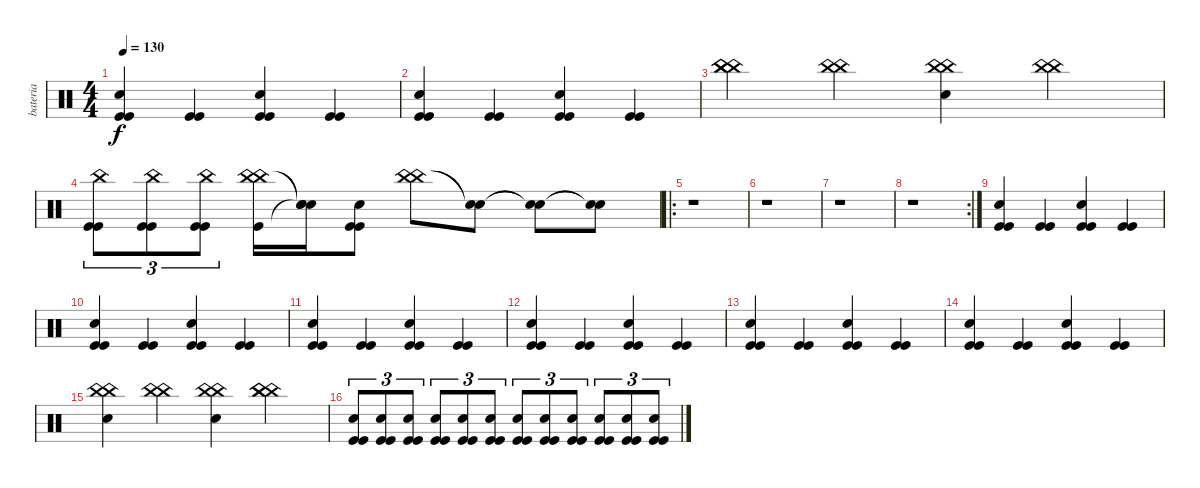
\track ("bateria" "bateria") {instrument percussion}
\staff {score}
\articulation defaults
\ts (4 4)
\tempo 130
\clef neutral
\ks c
("Kick (hit)" "Snare (hit) 2" "Kick (hit)").4{dy f} ("Kick (hit)" "Kick (hit)").4 ("Kick (hit)" "Snare (hit) 2" "Kick (hit)").4 ("Kick (hit)" "Kick (hit)").4 |
("Kick (hit)" "Snare (hit) 2" "Kick (hit)").4 ("Kick (hit)" "Kick (hit)").4 ("Kick (hit)" "Snare (hit) 2" "Kick (hit)").4 ("Kick (hit)" "Kick (hit)").4 |
("China (hit)" "China (hit)" "China (hit)").4 ("China (hit)" "China (hit)").4 ("China (hit)" "Snare (hit) 2" "China (hit)").4 ("China (hit)" "China (hit)").4 |
("China (hit)" "Kick (hit)" "Kick (hit)").8{tu (3 2)} ("China (hit)" "Kick (hit)" "Kick (hit)").8{tu (3 2)} ("China (hit)" "Kick (hit)" "Kick (hit)").8{tu (3 2)} ("China (hit)" "Kick (hit)" "China (hit)").16 ("Snare (hit)"{t} "Snare (hit)"{t} "Snare (hit)"{t}).16 ("Kick (hit)" "Kick (hit)" "Snare (hit) 2").8 ("China (hit)" "China (hit)").8 ("Snare (hit)"{t} "Snare (hit)"{t}).8 ("Snare (hit)"{t} "Snare (hit)"{t}).8 ("Snare (hit)"{t} "Snare (hit)"{t}).8 |
\ro
r.1 |
r.1 |
r.1 |
\rc 2
r.1 |
("Kick (hit)" "Snare (hit) 2" "Kick (hit)").4 ("Kick (hit)" "Kick (hit)").4 ("Kick (hit)" "Snare (hit) 2" "Kick (hit)").4 ("Kick (hit)" "Kick (hit)").4 |
("Kick (hit)" "Snare (hit) 2" "Kick (hit)").4 ("Kick (hit)" "Kick (hit)").4 ("Kick (hit)" "Snare (hit) 2" "Kick (hit)").4 ("Kick (hit)" "Kick (hit)").4 |
("Kick (hit)" "Snare (hit) 2" "Kick (hit)").4 ("Kick (hit)" "Kick (hit)").4 ("Kick (hit)" "Snare (hit) 2" "Kick (hit)").4 ("Kick (hit)" "Kick (hit)").4 |
("Kick (hit)" "Snare (hit) 2" "Kick (hit)").4 ("Kick (hit)" "Kick (hit)").4 ("Kick (hit)" "Snare (hit) 2" "Kick (hit)").4 ("Kick (hit)" "Kick (hit)").4 |
("Kick (hit)" "Snare (hit) 2" "Kick (hit)").4 ("Kick (hit)" "Kick (hit)").4 ("Kick (hit)" "Snare (hit) 2" "Kick (hit)").4 ("Kick (hit)" "Kick (hit)").4 |
("Kick (hit)" "Snare (hit) 2" "Kick (hit)").4 ("Kick (hit)" "Kick (hit)").4 ("Kick (hit)" "Snare (hit) 2" "Kick (hit)").4 ("Kick (hit)" "Kick (hit)").4 |
("China (hit)" "Snare (hit) 2" "China (hit)").4 ("China (hit)" "China (hit)").4 ("China (hit)" "Snare (hit) 2" "China (hit)").4 ("China (hit)" "China (hit)" "China (hit)").4 |
("Kick (hit)" "Snare (hit) 2" "Kick (hit)").8{tu (3 2)} ("Kick (hit)" "Snare (hit) 2" "Kick (hit)").8{tu (3 2)} ("Kick (hit)" "Snare (hit) 2" "Kick (hit)").8{tu (3 2)} ("Kick (hit)" "Snare (hit) 2" "Kick (hit)").8{tu (3 2)} ("Kick (hit)" "Snare (hit) 2" "Kick (hit)").8{tu (3 2)} ("Kick (hit)" "Snare (hit) 2" "Kick (hit)").8{tu (3 2)} ("Kick (hit)" "Snare (hit) 2" "Kick (hit)").8{tu (3 2)} ("Kick (hit)" "Snare (hit) 2" "Kick (hit)").8{tu (3 2)} ("Kick (hit)" "Snare (hit) 2" "Kick (hit)").8{tu (3 2)} ("Kick (hit)" "Snare (hit) 2" "Kick (hit)").8{tu (3 2)} ("Kick (hit)" "Snare (hit) 2" "Kick (hit)").8{tu (3 2)} ("Kick (hit)" "Snare (hit) 2" "Kick (hit)").8{tu (3 2)}
